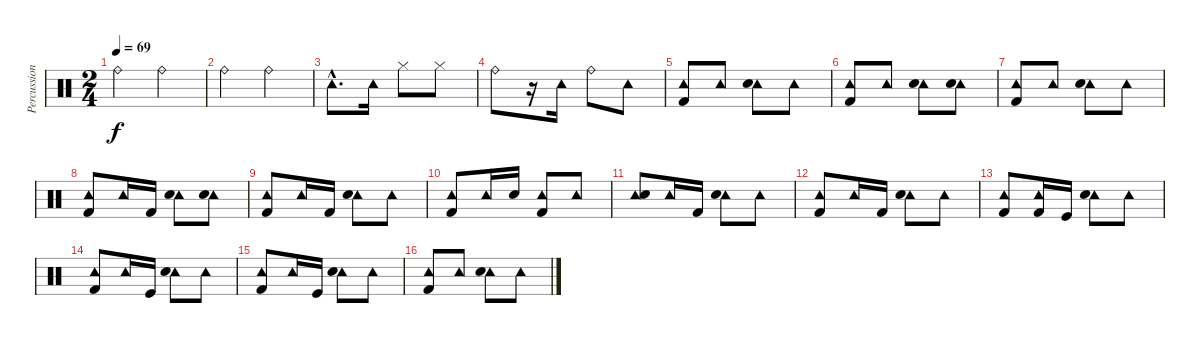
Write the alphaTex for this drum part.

\track ("Percussions" "Percussion") {instrument percussion}
\staff {score}
\articulation defaults
\ts (2 4)
\tempo 69
\clef neutral
\ks c "Ride (bell)".4{dy f} "Ride (bell)".4
|
"Ride (bell)".4 "Ride (bell)".4 |
"Tambourine (hit)"{hac}.8{d} "Tambourine (hit)".16 "Hi-Hat (closed)".8 "Hi-Hat (closed)".8 |
"Ride (bell)".8 r.16 "Tambourine (hit)".16 "Ride (bell)".8 "Tambourine (hit)".8 |
("Tambourine (hit)" "Kick (hit) 2").8 "Tambourine (hit)".8 ("Tambourine (hit)" "Electric Snare (hit)").8 "Tambourine (hit)".8 |
("Tambourine (hit)" "Kick (hit) 2").8 "Tambourine (hit)".8 ("Tambourine (hit)" "Electric Snare (hit)").8 ("Tambourine (hit)" "Electric Snare (hit)").8 |
("Tambourine (hit)" "Kick (hit) 2").8 "Tambourine (hit)".8 ("Tambourine (hit)" "Electric Snare (hit)").8 "Tambourine (hit)".8 |
("Tambourine (hit)" "Kick (hit) 2").8 "Tambourine (hit)".16 "Kick (hit) 2".16 ("Tambourine (hit)" "Electric Snare (hit)").8 ("Tambourine (hit)" "Electric Snare (hit)").8 |
("Tambourine (hit)" "Kick (hit) 2").8 "Tambourine (hit)".16 "Kick (hit) 2".16 ("Tambourine (hit)" "Electric Snare (hit)").8 "Tambourine (hit)".8 |
("Tambourine (hit)" "Kick (hit) 2").8 "Tambourine (hit)".16 "Electric Snare (hit)".16 ("Tambourine (hit)" "Kick (hit) 2").8 "Tambourine (hit)".8 |
("Tambourine (hit)" "Electric Snare (hit)").8 "Tambourine (hit)".16 "Kick (hit) 2".16 ("Tambourine (hit)" "Electric Snare (hit)").8 "Tambourine (hit)".8 |
("Tambourine (hit)" "Kick (hit) 2").8 "Tambourine (hit)".16 "Kick (hit) 2".16 ("Tambourine (hit)" "Electric Snare (hit)").8 "Tambourine (hit)".8 |
("Tambourine (hit)" "Kick (hit) 2").8 ("Tambourine (hit)" "Kick (hit) 2").16 "Kick (hit)".16 ("Tambourine (hit)" "Electric Snare (hit)").8 "Tambourine (hit)".8 |
("Tambourine (hit)" "Kick (hit) 2").8 "Tambourine (hit)".16 "Kick (hit)".16 ("Tambourine (hit)" "Electric Snare (hit)").8 "Tambourine (hit)".8 |
("Tambourine (hit)" "Kick (hit) 2").8 "Tambourine (hit)".16 "Kick (hit)".16 ("Tambourine (hit)" "Electric Snare (hit)").8 "Tambourine (hit)".8 |
("Tambourine (hit)" "Kick (hit) 2").8 "Tambourine (hit)".8 ("Tambourine (hit)" "Electric Snare (hit)").8 "Tambourine (hit)".8
